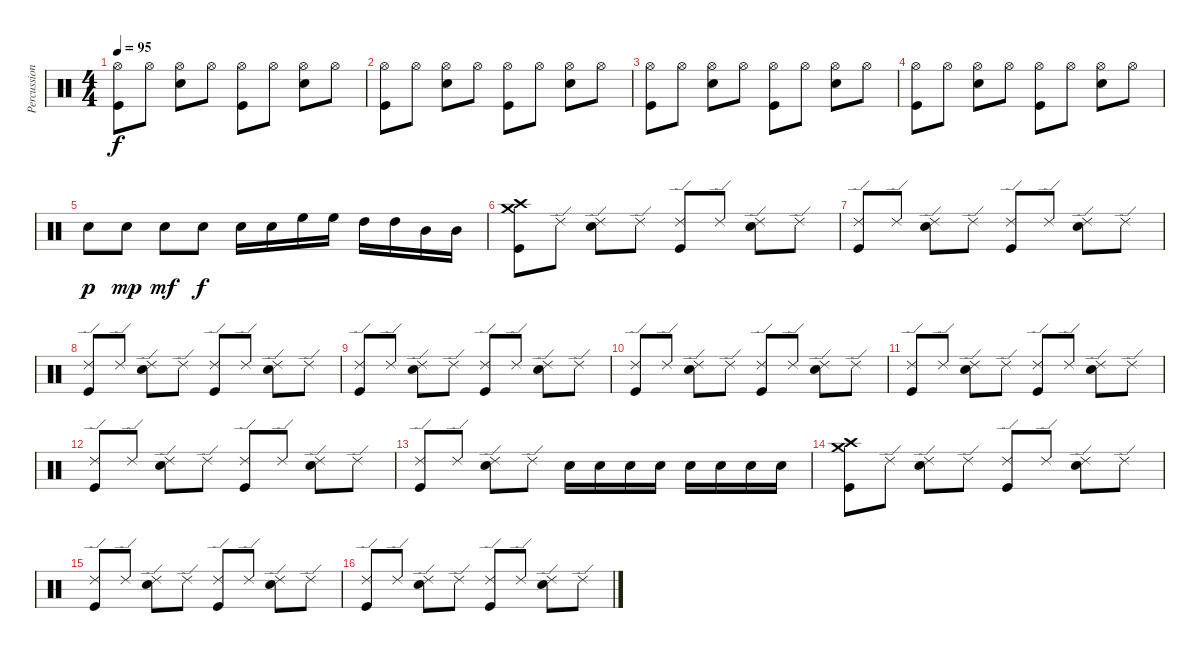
\track ("Percussion" "Percussion") {instrument percussion}
\staff {score}
\articulation defaults
\ts (4 4)
\tempo 95
\clef neutral
\ks c
("Hi-Hat (open)" "Kick (hit)").8{dy f} "Hi-Hat (open)".8 ("Hi-Hat (open)" "Electric Snare (hit)").8 "Hi-Hat (open)".8 ("Hi-Hat (open)" "Kick (hit)").8 "Hi-Hat (open)".8 ("Hi-Hat (open)" "Electric Snare (hit)").8 "Hi-Hat (open)".8 |
("Hi-Hat (open)" "Kick (hit)").8 "Hi-Hat (open)".8 ("Hi-Hat (open)" "Electric Snare (hit)").8 "Hi-Hat (open)".8 ("Hi-Hat (open)" "Kick (hit)").8 "Hi-Hat (open)".8 ("Hi-Hat (open)" "Electric Snare (hit)").8 "Hi-Hat (open)".8 |
("Hi-Hat (open)" "Kick (hit)").8 "Hi-Hat (open)".8 ("Hi-Hat (open)" "Electric Snare (hit)").8 "Hi-Hat (open)".8 ("Hi-Hat (open)" "Kick (hit)").8 "Hi-Hat (open)".8 ("Hi-Hat (open)" "Electric Snare (hit)").8 "Hi-Hat (open)".8 |
("Hi-Hat (open)" "Kick (hit)").8 "Hi-Hat (open)".8 ("Hi-Hat (open)" "Electric Snare (hit)").8 "Hi-Hat (open)".8 ("Hi-Hat (open)" "Kick (hit)").8 "Hi-Hat (open)".8 ("Hi-Hat (open)" "Electric Snare (hit)").8 "Hi-Hat (open)".8 |
"Electric Snare (hit)".8{dy p} "Electric Snare (hit)".8{dy mp} "Electric Snare (hit)".8{dy mf} "Electric Snare (hit)".8{dy f} "Electric Snare (hit)".16 "Electric Snare (hit)".16 "High Floor Tom (hit)".16 "High Floor Tom (hit)".16 "High Tom (hit)".16 "High Tom (hit)".16 "Mid Tom (hit)".16 "Mid Tom (hit)".16 |
("Crash medium (hit)" "Crash high (hit)" "Kick (hit)").8 "Ride (edge) 2".8 ("Ride (edge) 2" "Electric Snare (hit)").8 "Ride (edge) 2".8 ("Ride (edge) 2" "Kick (hit)").8 "Ride (edge) 2".8 ("Ride (edge) 2" "Electric Snare (hit)").8 "Ride (edge) 2".8 |
("Ride (edge) 2" "Kick (hit)").8 "Ride (edge) 2".8 ("Ride (edge) 2" "Electric Snare (hit)").8 "Ride (edge) 2".8 ("Ride (edge) 2" "Kick (hit)").8 "Ride (edge) 2".8 ("Ride (edge) 2" "Electric Snare (hit)").8 "Ride (edge) 2".8 |
("Ride (edge) 2" "Kick (hit)").8 "Ride (edge) 2".8 ("Ride (edge) 2" "Electric Snare (hit)").8 "Ride (edge) 2".8 ("Ride (edge) 2" "Kick (hit)").8 "Ride (edge) 2".8 ("Ride (edge) 2" "Electric Snare (hit)").8 "Ride (edge) 2".8 |
("Ride (edge) 2" "Kick (hit)").8 "Ride (edge) 2".8 ("Ride (edge) 2" "Electric Snare (hit)").8 "Ride (edge) 2".8 ("Ride (edge) 2" "Kick (hit)").8 "Ride (edge) 2".8 ("Ride (edge) 2" "Electric Snare (hit)").8 "Ride (edge) 2".8 |
("Ride (edge) 2" "Kick (hit)").8 "Ride (edge) 2".8 ("Ride (edge) 2" "Electric Snare (hit)").8 "Ride (edge) 2".8 ("Ride (edge) 2" "Kick (hit)").8 "Ride (edge) 2".8 ("Ride (edge) 2" "Electric Snare (hit)").8 "Ride (edge) 2".8 |
("Ride (edge) 2" "Kick (hit)").8 "Ride (edge) 2".8 ("Ride (edge) 2" "Electric Snare (hit)").8 "Ride (edge) 2".8 ("Ride (edge) 2" "Kick (hit)").8 "Ride (edge) 2".8 ("Ride (edge) 2" "Electric Snare (hit)").8 "Ride (edge) 2".8 |
("Ride (edge) 2" "Kick (hit)").8 "Ride (edge) 2".8 ("Ride (edge) 2" "Electric Snare (hit)").8 "Ride (edge) 2".8 ("Ride (edge) 2" "Kick (hit)").8 "Ride (edge) 2".8 ("Ride (edge) 2" "Electric Snare (hit)").8 "Ride (edge) 2".8 |
("Ride (edge) 2" "Kick (hit)").8 "Ride (edge) 2".8 ("Ride (edge) 2" "Electric Snare (hit)").8 "Ride (edge) 2".8 "Snare (hit) 2".16 "Snare (hit) 2".16 "Snare (hit) 2".16 "Snare (hit) 2".16 "Snare (hit) 2".16 "Snare (hit) 2".16 "Snare (hit) 2".16 "Snare (hit) 2".16 |
("Crash medium (hit)" "Crash high (hit)" "Kick (hit)").8 "Ride (edge) 2".8 ("Ride (edge) 2" "Electric Snare (hit)").8 "Ride (edge) 2".8 ("Ride (edge) 2" "Kick (hit)").8 "Ride (edge) 2".8 ("Ride (edge) 2" "Electric Snare (hit)").8 "Ride (edge) 2".8 |
("Ride (edge) 2" "Kick (hit)").8 "Ride (edge) 2".8 ("Ride (edge) 2" "Electric Snare (hit)").8 "Ride (edge) 2".8 ("Ride (edge) 2" "Kick (hit)").8 "Ride (edge) 2".8 ("Ride (edge) 2" "Electric Snare (hit)").8 "Ride (edge) 2".8 |
("Ride (edge) 2" "Kick (hit)").8 "Ride (edge) 2".8 ("Ride (edge) 2" "Electric Snare (hit)").8 "Ride (edge) 2".8 ("Ride (edge) 2" "Kick (hit)").8 "Ride (edge) 2".8 ("Ride (edge) 2" "Electric Snare (hit)").8 "Ride (edge) 2".8
